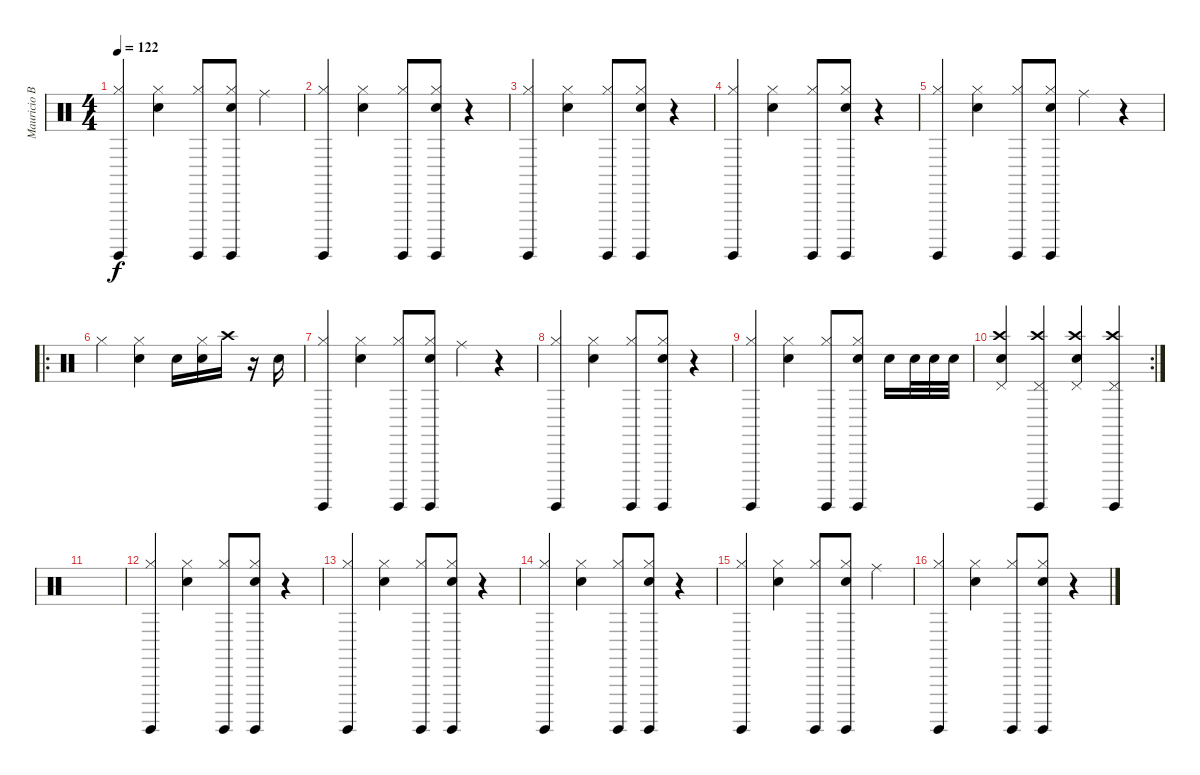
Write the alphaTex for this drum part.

\track ("Mauricio Basualto" "Mauricio B") {instrument percussion}
\staff {score}
\articulation defaults
\ts (4 4)
\tempo 122
\clef neutral
\ks c
("Surdo (hit)" "Hi-Hat (closed)").4{dy f} ("Hi-Hat (closed)" "Snare (hit) 2").4 ("Surdo (hit)" "Hi-Hat (closed)").8 ("Surdo (hit)" "Hi-Hat (closed)" "Snare (hit) 2").8 "Ride (middle)".4 |
("Surdo (hit)" "Hi-Hat (closed)").4 ("Hi-Hat (closed)" "Snare (hit) 2").4 ("Surdo (hit)" "Hi-Hat (closed)").8 ("Surdo (hit)" "Hi-Hat (closed)" "Snare (hit) 2").8 r.4 |
("Surdo (hit)" "Hi-Hat (closed)").4 ("Hi-Hat (closed)" "Snare (hit) 2").4 ("Surdo (hit)" "Hi-Hat (closed)").8 ("Surdo (hit)" "Hi-Hat (closed)" "Snare (hit) 2").8 r.4 |
("Surdo (hit)" "Hi-Hat (closed)").4 ("Hi-Hat (closed)" "Snare (hit) 2").4 ("Surdo (hit)" "Hi-Hat (closed)").8 ("Surdo (hit)" "Hi-Hat (closed)" "Snare (hit) 2").8 r.4 |
("Surdo (hit)" "Hi-Hat (closed)").4 ("Hi-Hat (closed)" "Snare (hit) 2").4 ("Surdo (hit)" "Hi-Hat (closed)").8 ("Surdo (hit)" "Hi-Hat (closed)" "Snare (hit) 2").8 "Ride (middle)".4 r.4 |
\ro "Hi-Hat (closed)".4
("Hi-Hat (closed)" "Snare (hit) 2").4 "Snare (hit) 2".16 ("Snare (hit) 2" "Hi-Hat (closed)").16 "Crash high (hit)".16 r.16 "Snare (hit) 2".16 |
("Surdo (hit)" "Hi-Hat (closed)").4 ("Hi-Hat (closed)" "Snare (hit) 2").4 ("Surdo (hit)" "Hi-Hat (closed)").8 ("Surdo (hit)" "Hi-Hat (closed)" "Snare (hit) 2").8 "Ride (middle)".4 r.4 |
("Surdo (hit)" "Hi-Hat (closed)").4 ("Hi-Hat (closed)" "Snare (hit) 2").4 ("Surdo (hit)" "Hi-Hat (closed)").8 ("Surdo (hit)" "Hi-Hat (closed)" "Snare (hit) 2").8 r.4 |
("Surdo (hit)" "Hi-Hat (closed)").4 ("Hi-Hat (closed)" "Snare (hit) 2").4 ("Surdo (hit)" "Hi-Hat (closed)").8 ("Surdo (hit)" "Hi-Hat (closed)" "Snare (hit) 2").8 "Snare (hit) 2".16 "Snare (hit) 2".32 "Snare (hit) 2".32 "Snare (hit) 2".32 |
\rc 2
("Crash high (hit)" "Snare (hit) 2" "Pedal Hi-Hat (hit)").4 ("Crash high (hit)" "Surdo (hit)" "Pedal Hi-Hat (hit)").4 ("Crash high (hit)" "Snare (hit) 2" "Pedal Hi-Hat (hit)").4 ("Crash high (hit)" "Surdo (hit)" "Pedal Hi-Hat (hit)").4 |
|
("Surdo (hit)" "Hi-Hat (closed)").4 ("Hi-Hat (closed)" "Snare (hit) 2").4 ("Surdo (hit)" "Hi-Hat (closed)").8 ("Surdo (hit)" "Hi-Hat (closed)" "Snare (hit) 2").8 r.4 |
("Surdo (hit)" "Hi-Hat (closed)").4 ("Hi-Hat (closed)" "Snare (hit) 2").4 ("Surdo (hit)" "Hi-Hat (closed)").8 ("Surdo (hit)" "Hi-Hat (closed)" "Snare (hit) 2").8 r.4 |
("Surdo (hit)" "Hi-Hat (closed)").4 ("Hi-Hat (closed)" "Snare (hit) 2").4 ("Surdo (hit)" "Hi-Hat (closed)").8 ("Surdo (hit)" "Hi-Hat (closed)" "Snare (hit) 2").8 r.4 |
("Surdo (hit)" "Hi-Hat (closed)").4 ("Hi-Hat (closed)" "Snare (hit) 2").4 ("Surdo (hit)" "Hi-Hat (closed)").8 ("Surdo (hit)" "Hi-Hat (closed)" "Snare (hit) 2").8 "Ride (middle)".4 |
("Surdo (hit)" "Hi-Hat (closed)").4 ("Hi-Hat (closed)" "Snare (hit) 2").4 ("Surdo (hit)" "Hi-Hat (closed)").8 ("Surdo (hit)" "Hi-Hat (closed)" "Snare (hit) 2").8 r.4
